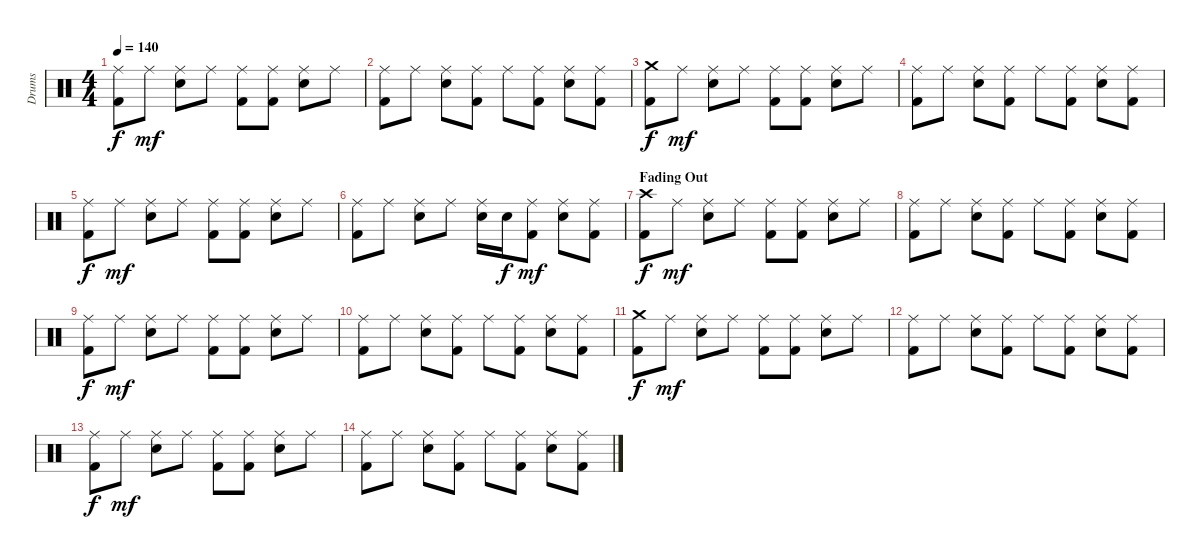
\track ("Drums" "Drums") {instrument percussion}
\staff {score}
\articulation defaults
\ts (4 4)
\tempo 140
\clef neutral
\ks c
("Ride (middle)" "Kick (hit) 2").8{dy f} "Ride (middle)".8{dy mf} ("Ride (middle)" "Electric Snare (hit)").8 "Ride (middle)".8 ("Ride (middle)" "Kick (hit) 2").8 ("Ride (middle)" "Kick (hit) 2").8 ("Ride (middle)" "Electric Snare (hit)").8 "Ride (middle)".8 |
("Ride (middle)" "Kick (hit) 2").8 "Ride (middle)".8 ("Ride (middle)" "Electric Snare (hit)").8 ("Ride (middle)" "Kick (hit) 2").8 "Ride (middle)".8 ("Ride (middle)" "Kick (hit) 2").8 ("Ride (middle)" "Electric Snare (hit)").8 ("Ride (middle)" "Kick (hit) 2").8 |
("Crash medium (hit)" "Kick (hit) 2").8{dy f} "Ride (middle)".8{dy mf} ("Ride (middle)" "Electric Snare (hit)").8 "Ride (middle)".8 ("Ride (middle)" "Kick (hit) 2").8 ("Ride (middle)" "Kick (hit) 2").8 ("Ride (middle)" "Electric Snare (hit)").8 "Ride (middle)".8 |
("Ride (middle)" "Kick (hit) 2").8 "Ride (middle)".8 ("Ride (middle)" "Electric Snare (hit)").8 ("Ride (middle)" "Kick (hit) 2").8 "Ride (middle)".8 ("Ride (middle)" "Kick (hit) 2").8 ("Ride (middle)" "Electric Snare (hit)").8 ("Ride (middle)" "Kick (hit) 2").8 |
("Ride (middle)" "Kick (hit) 2").8{dy f} "Ride (middle)".8{dy mf} ("Ride (middle)" "Electric Snare (hit)").8 "Ride (middle)".8 ("Ride (middle)" "Kick (hit) 2").8 ("Ride (middle)" "Kick (hit) 2").8 ("Ride (middle)" "Electric Snare (hit)").8 "Ride (middle)".8 |
("Ride (middle)" "Kick (hit) 2").8 "Ride (middle)".8 ("Ride (middle)" "Electric Snare (hit)").8 "Ride (middle)".8 ("Ride (middle)" "Electric Snare (hit)").16 "Electric Snare (hit)".16{dy f} ("Ride (middle)" "Kick (hit) 2").8{dy mf} ("Ride (middle)" "Electric Snare (hit)").8 ("Ride (middle)" "Kick (hit) 2").8 |
\section ("" "Fading Out")
("Crash high (hit)" "Kick (hit) 2").8{dy f} "Ride (middle)".8{dy mf} ("Ride (middle)" "Electric Snare (hit)").8 "Ride (middle)".8 ("Ride (middle)" "Kick (hit) 2").8 ("Ride (middle)" "Kick (hit) 2").8 ("Ride (middle)" "Electric Snare (hit)").8 "Ride (middle)".8 |
("Ride (middle)" "Kick (hit) 2").8 "Ride (middle)".8 ("Ride (middle)" "Electric Snare (hit)").8 ("Ride (middle)" "Kick (hit) 2").8 "Ride (middle)".8 ("Ride (middle)" "Kick (hit) 2").8 ("Ride (middle)" "Electric Snare (hit)").8 ("Ride (middle)" "Kick (hit) 2").8 |
("Ride (middle)" "Kick (hit) 2").8{dy f} "Ride (middle)".8{dy mf} ("Ride (middle)" "Electric Snare (hit)").8 "Ride (middle)".8 ("Ride (middle)" "Kick (hit) 2").8 ("Ride (middle)" "Kick (hit) 2").8 ("Ride (middle)" "Electric Snare (hit)").8 "Ride (middle)".8 |
("Ride (middle)" "Kick (hit) 2").8 "Ride (middle)".8 ("Ride (middle)" "Electric Snare (hit)").8 ("Ride (middle)" "Kick (hit) 2").8 "Ride (middle)".8 ("Ride (middle)" "Kick (hit) 2").8 ("Ride (middle)" "Electric Snare (hit)").8 ("Ride (middle)" "Kick (hit) 2").8 |
("Crash medium (hit)" "Kick (hit) 2").8{dy f} "Ride (middle)".8{dy mf} ("Ride (middle)" "Electric Snare (hit)").8 "Ride (middle)".8 ("Ride (middle)" "Kick (hit) 2").8 ("Ride (middle)" "Kick (hit) 2").8 ("Ride (middle)" "Electric Snare (hit)").8 "Ride (middle)".8 |
("Ride (middle)" "Kick (hit) 2").8 "Ride (middle)".8 ("Ride (middle)" "Electric Snare (hit)").8 ("Ride (middle)" "Kick (hit) 2").8 "Ride (middle)".8 ("Ride (middle)" "Kick (hit) 2").8 ("Ride (middle)" "Electric Snare (hit)").8 ("Ride (middle)" "Kick (hit) 2").8 |
("Ride (middle)" "Kick (hit) 2").8{dy f} "Ride (middle)".8{dy mf} ("Ride (middle)" "Electric Snare (hit)").8 "Ride (middle)".8 ("Ride (middle)" "Kick (hit) 2").8 ("Ride (middle)" "Kick (hit) 2").8 ("Ride (middle)" "Electric Snare (hit)").8 "Ride (middle)".8 |
("Ride (middle)" "Kick (hit) 2").8 "Ride (middle)".8 ("Ride (middle)" "Electric Snare (hit)").8 ("Ride (middle)" "Kick (hit) 2").8 "Ride (middle)".8 ("Ride (middle)" "Kick (hit) 2").8 ("Ride (middle)" "Electric Snare (hit)").8 ("Ride (middle)" "Kick (hit) 2").8
